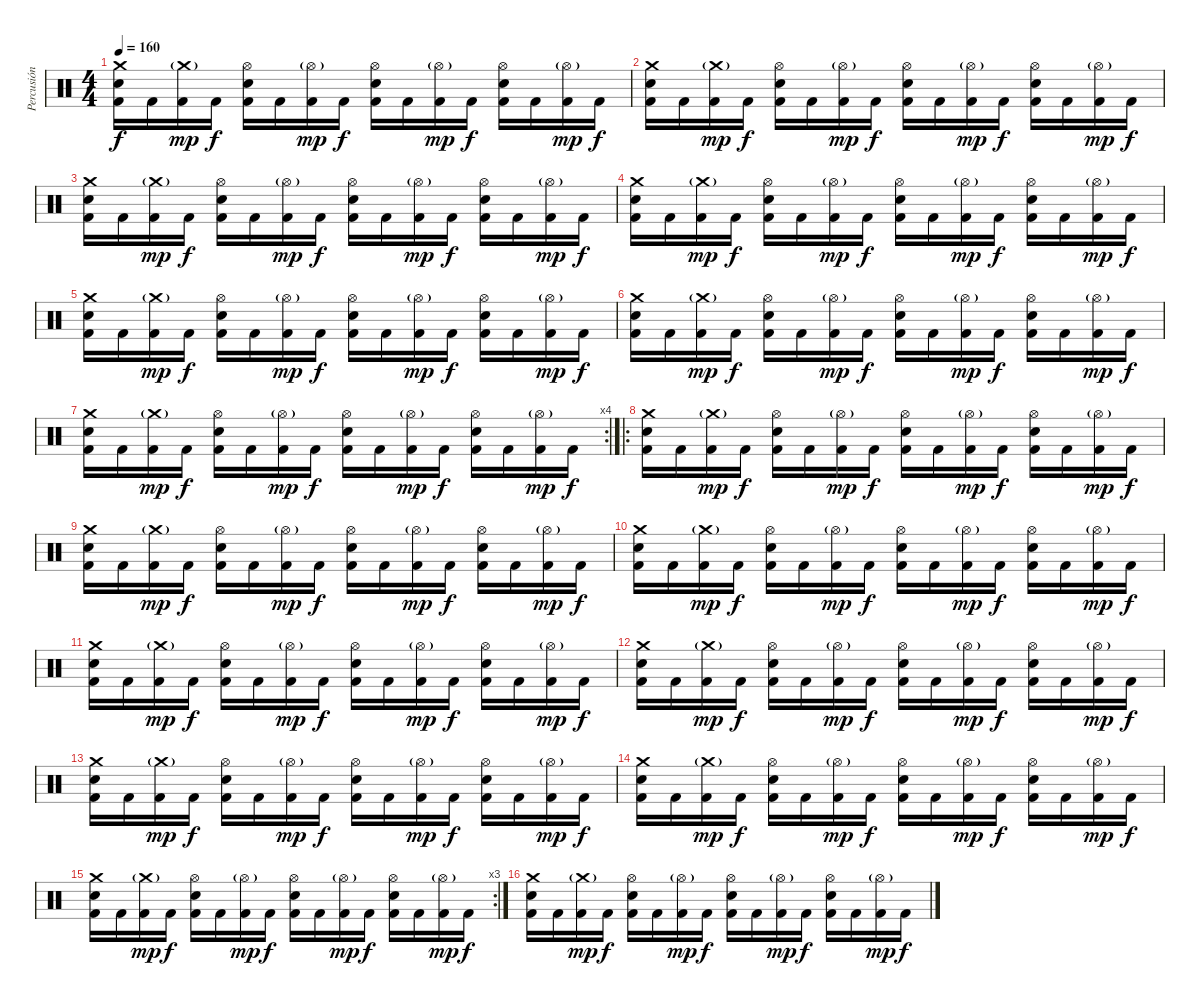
\track ("Percusión" "Percusión") {instrument percussion}
\staff {score}
\articulation defaults
\ts (4 4)
\tempo 160
\clef neutral
\ks c
("Crash medium (hit)" "Electric Snare (hit)" "Kick (hit) 2").16{dy f} "Kick (hit) 2".16 ("Crash medium (hit)"{g} "Kick (hit) 2").16{dy mp} "Kick (hit) 2".16{dy f} ("Hi-Hat (open)" "Electric Snare (hit)" "Kick (hit) 2").16 "Kick (hit) 2".16 ("Hi-Hat (open)"{g} "Kick (hit) 2").16{dy mp} "Kick (hit) 2".16{dy f} ("Hi-Hat (open)" "Electric Snare (hit)" "Kick (hit) 2").16 "Kick (hit) 2".16 ("Hi-Hat (open)"{g} "Kick (hit) 2").16{dy mp} "Kick (hit) 2".16{dy f} ("Hi-Hat (open)" "Electric Snare (hit)" "Kick (hit) 2").16 "Kick (hit) 2".16 ("Hi-Hat (open)"{g} "Kick (hit) 2").16{dy mp} "Kick (hit) 2".16{dy f} |
("Crash medium (hit)" "Electric Snare (hit)" "Kick (hit) 2").16 "Kick (hit) 2".16 ("Crash medium (hit)"{g} "Kick (hit) 2").16{dy mp} "Kick (hit) 2".16{dy f} ("Hi-Hat (open)" "Electric Snare (hit)" "Kick (hit) 2").16 "Kick (hit) 2".16 ("Hi-Hat (open)"{g} "Kick (hit) 2").16{dy mp} "Kick (hit) 2".16{dy f} ("Hi-Hat (open)" "Electric Snare (hit)" "Kick (hit) 2").16 "Kick (hit) 2".16 ("Hi-Hat (open)"{g} "Kick (hit) 2").16{dy mp} "Kick (hit) 2".16{dy f} ("Hi-Hat (open)" "Electric Snare (hit)" "Kick (hit) 2").16 "Kick (hit) 2".16 ("Hi-Hat (open)"{g} "Kick (hit) 2").16{dy mp} "Kick (hit) 2".16{dy f} |
("Crash medium (hit)" "Electric Snare (hit)" "Kick (hit) 2").16 "Kick (hit) 2".16 ("Crash medium (hit)"{g} "Kick (hit) 2").16{dy mp} "Kick (hit) 2".16{dy f} ("Hi-Hat (open)" "Electric Snare (hit)" "Kick (hit) 2").16 "Kick (hit) 2".16 ("Hi-Hat (open)"{g} "Kick (hit) 2").16{dy mp} "Kick (hit) 2".16{dy f} ("Hi-Hat (open)" "Electric Snare (hit)" "Kick (hit) 2").16 "Kick (hit) 2".16 ("Hi-Hat (open)"{g} "Kick (hit) 2").16{dy mp} "Kick (hit) 2".16{dy f} ("Hi-Hat (open)" "Electric Snare (hit)" "Kick (hit) 2").16 "Kick (hit) 2".16 ("Hi-Hat (open)"{g} "Kick (hit) 2").16{dy mp} "Kick (hit) 2".16{dy f} |
("Crash medium (hit)" "Electric Snare (hit)" "Kick (hit) 2").16 "Kick (hit) 2".16 ("Crash medium (hit)"{g} "Kick (hit) 2").16{dy mp} "Kick (hit) 2".16{dy f} ("Hi-Hat (open)" "Electric Snare (hit)" "Kick (hit) 2").16 "Kick (hit) 2".16 ("Hi-Hat (open)"{g} "Kick (hit) 2").16{dy mp} "Kick (hit) 2".16{dy f} ("Hi-Hat (open)" "Electric Snare (hit)" "Kick (hit) 2").16 "Kick (hit) 2".16 ("Hi-Hat (open)"{g} "Kick (hit) 2").16{dy mp} "Kick (hit) 2".16{dy f} ("Hi-Hat (open)" "Electric Snare (hit)" "Kick (hit) 2").16 "Kick (hit) 2".16 ("Hi-Hat (open)"{g} "Kick (hit) 2").16{dy mp} "Kick (hit) 2".16{dy f} |
("Crash medium (hit)" "Electric Snare (hit)" "Kick (hit) 2").16 "Kick (hit) 2".16 ("Crash medium (hit)"{g} "Kick (hit) 2").16{dy mp} "Kick (hit) 2".16{dy f} ("Hi-Hat (open)" "Electric Snare (hit)" "Kick (hit) 2").16 "Kick (hit) 2".16 ("Hi-Hat (open)"{g} "Kick (hit) 2").16{dy mp} "Kick (hit) 2".16{dy f} ("Hi-Hat (open)" "Electric Snare (hit)" "Kick (hit) 2").16 "Kick (hit) 2".16 ("Hi-Hat (open)"{g} "Kick (hit) 2").16{dy mp} "Kick (hit) 2".16{dy f} ("Hi-Hat (open)" "Electric Snare (hit)" "Kick (hit) 2").16 "Kick (hit) 2".16 ("Hi-Hat (open)"{g} "Kick (hit) 2").16{dy mp} "Kick (hit) 2".16{dy f} |
("Crash medium (hit)" "Electric Snare (hit)" "Kick (hit) 2").16 "Kick (hit) 2".16 ("Crash medium (hit)"{g} "Kick (hit) 2").16{dy mp} "Kick (hit) 2".16{dy f} ("Hi-Hat (open)" "Electric Snare (hit)" "Kick (hit) 2").16 "Kick (hit) 2".16 ("Hi-Hat (open)"{g} "Kick (hit) 2").16{dy mp} "Kick (hit) 2".16{dy f} ("Hi-Hat (open)" "Electric Snare (hit)" "Kick (hit) 2").16 "Kick (hit) 2".16 ("Hi-Hat (open)"{g} "Kick (hit) 2").16{dy mp} "Kick (hit) 2".16{dy f} ("Hi-Hat (open)" "Electric Snare (hit)" "Kick (hit) 2").16 "Kick (hit) 2".16 ("Hi-Hat (open)"{g} "Kick (hit) 2").16{dy mp} "Kick (hit) 2".16{dy f} |
\rc 4
("Crash medium (hit)" "Electric Snare (hit)" "Kick (hit) 2").16 "Kick (hit) 2".16 ("Crash medium (hit)"{g} "Kick (hit) 2").16{dy mp} "Kick (hit) 2".16{dy f} ("Hi-Hat (open)" "Electric Snare (hit)" "Kick (hit) 2").16 "Kick (hit) 2".16 ("Hi-Hat (open)"{g} "Kick (hit) 2").16{dy mp} "Kick (hit) 2".16{dy f} ("Hi-Hat (open)" "Electric Snare (hit)" "Kick (hit) 2").16 "Kick (hit) 2".16 ("Hi-Hat (open)"{g} "Kick (hit) 2").16{dy mp} "Kick (hit) 2".16{dy f} ("Hi-Hat (open)" "Electric Snare (hit)" "Kick (hit) 2").16 "Kick (hit) 2".16 ("Hi-Hat (open)"{g} "Kick (hit) 2").16{dy mp} "Kick (hit) 2".16{dy f} |
\ro
("Crash medium (hit)" "Electric Snare (hit)" "Kick (hit) 2").16 "Kick (hit) 2".16 ("Crash medium (hit)"{g} "Kick (hit) 2").16{dy mp} "Kick (hit) 2".16{dy f} ("Hi-Hat (open)" "Electric Snare (hit)" "Kick (hit) 2").16 "Kick (hit) 2".16 ("Hi-Hat (open)"{g} "Kick (hit) 2").16{dy mp} "Kick (hit) 2".16{dy f} ("Hi-Hat (open)" "Electric Snare (hit)" "Kick (hit) 2").16 "Kick (hit) 2".16 ("Hi-Hat (open)"{g} "Kick (hit) 2").16{dy mp} "Kick (hit) 2".16{dy f} ("Hi-Hat (open)" "Electric Snare (hit)" "Kick (hit) 2").16 "Kick (hit) 2".16 ("Hi-Hat (open)"{g} "Kick (hit) 2").16{dy mp} "Kick (hit) 2".16{dy f} |
("Crash medium (hit)" "Electric Snare (hit)" "Kick (hit) 2").16 "Kick (hit) 2".16 ("Crash medium (hit)"{g} "Kick (hit) 2").16{dy mp} "Kick (hit) 2".16{dy f} ("Hi-Hat (open)" "Electric Snare (hit)" "Kick (hit) 2").16 "Kick (hit) 2".16 ("Hi-Hat (open)"{g} "Kick (hit) 2").16{dy mp} "Kick (hit) 2".16{dy f} ("Hi-Hat (open)" "Electric Snare (hit)" "Kick (hit) 2").16 "Kick (hit) 2".16 ("Hi-Hat (open)"{g} "Kick (hit) 2").16{dy mp} "Kick (hit) 2".16{dy f} ("Hi-Hat (open)" "Electric Snare (hit)" "Kick (hit) 2").16 "Kick (hit) 2".16 ("Hi-Hat (open)"{g} "Kick (hit) 2").16{dy mp} "Kick (hit) 2".16{dy f} |
("Crash medium (hit)" "Electric Snare (hit)" "Kick (hit) 2").16 "Kick (hit) 2".16 ("Crash medium (hit)"{g} "Kick (hit) 2").16{dy mp} "Kick (hit) 2".16{dy f} ("Hi-Hat (open)" "Electric Snare (hit)" "Kick (hit) 2").16 "Kick (hit) 2".16 ("Hi-Hat (open)"{g} "Kick (hit) 2").16{dy mp} "Kick (hit) 2".16{dy f} ("Hi-Hat (open)" "Electric Snare (hit)" "Kick (hit) 2").16 "Kick (hit) 2".16 ("Hi-Hat (open)"{g} "Kick (hit) 2").16{dy mp} "Kick (hit) 2".16{dy f} ("Hi-Hat (open)" "Electric Snare (hit)" "Kick (hit) 2").16 "Kick (hit) 2".16 ("Hi-Hat (open)"{g} "Kick (hit) 2").16{dy mp} "Kick (hit) 2".16{dy f} |
("Crash medium (hit)" "Electric Snare (hit)" "Kick (hit) 2").16 "Kick (hit) 2".16 ("Crash medium (hit)"{g} "Kick (hit) 2").16{dy mp} "Kick (hit) 2".16{dy f} ("Hi-Hat (open)" "Electric Snare (hit)" "Kick (hit) 2").16 "Kick (hit) 2".16 ("Hi-Hat (open)"{g} "Kick (hit) 2").16{dy mp} "Kick (hit) 2".16{dy f} ("Hi-Hat (open)" "Electric Snare (hit)" "Kick (hit) 2").16 "Kick (hit) 2".16 ("Hi-Hat (open)"{g} "Kick (hit) 2").16{dy mp} "Kick (hit) 2".16{dy f} ("Hi-Hat (open)" "Electric Snare (hit)" "Kick (hit) 2").16 "Kick (hit) 2".16 ("Hi-Hat (open)"{g} "Kick (hit) 2").16{dy mp} "Kick (hit) 2".16{dy f} |
("Crash medium (hit)" "Electric Snare (hit)" "Kick (hit) 2").16 "Kick (hit) 2".16 ("Crash medium (hit)"{g} "Kick (hit) 2").16{dy mp} "Kick (hit) 2".16{dy f} ("Hi-Hat (open)" "Electric Snare (hit)" "Kick (hit) 2").16 "Kick (hit) 2".16 ("Hi-Hat (open)"{g} "Kick (hit) 2").16{dy mp} "Kick (hit) 2".16{dy f} ("Hi-Hat (open)" "Electric Snare (hit)" "Kick (hit) 2").16 "Kick (hit) 2".16 ("Hi-Hat (open)"{g} "Kick (hit) 2").16{dy mp} "Kick (hit) 2".16{dy f} ("Hi-Hat (open)" "Electric Snare (hit)" "Kick (hit) 2").16 "Kick (hit) 2".16 ("Hi-Hat (open)"{g} "Kick (hit) 2").16{dy mp} "Kick (hit) 2".16{dy f} |
("Crash medium (hit)" "Electric Snare (hit)" "Kick (hit) 2").16 "Kick (hit) 2".16 ("Crash medium (hit)"{g} "Kick (hit) 2").16{dy mp} "Kick (hit) 2".16{dy f} ("Hi-Hat (open)" "Electric Snare (hit)" "Kick (hit) 2").16 "Kick (hit) 2".16 ("Hi-Hat (open)"{g} "Kick (hit) 2").16{dy mp} "Kick (hit) 2".16{dy f} ("Hi-Hat (open)" "Electric Snare (hit)" "Kick (hit) 2").16 "Kick (hit) 2".16 ("Hi-Hat (open)"{g} "Kick (hit) 2").16{dy mp} "Kick (hit) 2".16{dy f} ("Hi-Hat (open)" "Electric Snare (hit)" "Kick (hit) 2").16 "Kick (hit) 2".16 ("Hi-Hat (open)"{g} "Kick (hit) 2").16{dy mp} "Kick (hit) 2".16{dy f} |
("Crash medium (hit)" "Electric Snare (hit)" "Kick (hit) 2").16 "Kick (hit) 2".16 ("Crash medium (hit)"{g} "Kick (hit) 2").16{dy mp} "Kick (hit) 2".16{dy f} ("Hi-Hat (open)" "Electric Snare (hit)" "Kick (hit) 2").16 "Kick (hit) 2".16 ("Hi-Hat (open)"{g} "Kick (hit) 2").16{dy mp} "Kick (hit) 2".16{dy f} ("Hi-Hat (open)" "Electric Snare (hit)" "Kick (hit) 2").16 "Kick (hit) 2".16 ("Hi-Hat (open)"{g} "Kick (hit) 2").16{dy mp} "Kick (hit) 2".16{dy f} ("Hi-Hat (open)" "Electric Snare (hit)" "Kick (hit) 2").16 "Kick (hit) 2".16 ("Hi-Hat (open)"{g} "Kick (hit) 2").16{dy mp} "Kick (hit) 2".16{dy f} |
\rc 3
("Crash medium (hit)" "Electric Snare (hit)" "Kick (hit) 2").16 "Kick (hit) 2".16 ("Crash medium (hit)"{g} "Kick (hit) 2").16{dy mp} "Kick (hit) 2".16{dy f} ("Hi-Hat (open)" "Electric Snare (hit)" "Kick (hit) 2").16 "Kick (hit) 2".16 ("Hi-Hat (open)"{g} "Kick (hit) 2").16{dy mp} "Kick (hit) 2".16{dy f} ("Hi-Hat (open)" "Electric Snare (hit)" "Kick (hit) 2").16 "Kick (hit) 2".16 ("Hi-Hat (open)"{g} "Kick (hit) 2").16{dy mp} "Kick (hit) 2".16{dy f} ("Hi-Hat (open)" "Electric Snare (hit)" "Kick (hit) 2").16 "Kick (hit) 2".16 ("Hi-Hat (open)"{g} "Kick (hit) 2").16{dy mp} "Kick (hit) 2".16{dy f} |
("Crash medium (hit)" "Electric Snare (hit)" "Kick (hit) 2").16 "Kick (hit) 2".16 ("Crash medium (hit)"{g} "Kick (hit) 2").16{dy mp} "Kick (hit) 2".16{dy f} ("Hi-Hat (open)" "Electric Snare (hit)" "Kick (hit) 2").16 "Kick (hit) 2".16 ("Hi-Hat (open)"{g} "Kick (hit) 2").16{dy mp} "Kick (hit) 2".16{dy f} ("Hi-Hat (open)" "Electric Snare (hit)" "Kick (hit) 2").16 "Kick (hit) 2".16 ("Hi-Hat (open)"{g} "Kick (hit) 2").16{dy mp} "Kick (hit) 2".16{dy f} ("Hi-Hat (open)" "Electric Snare (hit)" "Kick (hit) 2").16 "Kick (hit) 2".16 ("Hi-Hat (open)"{g} "Kick (hit) 2").16{dy mp} "Kick (hit) 2".16{dy f}
